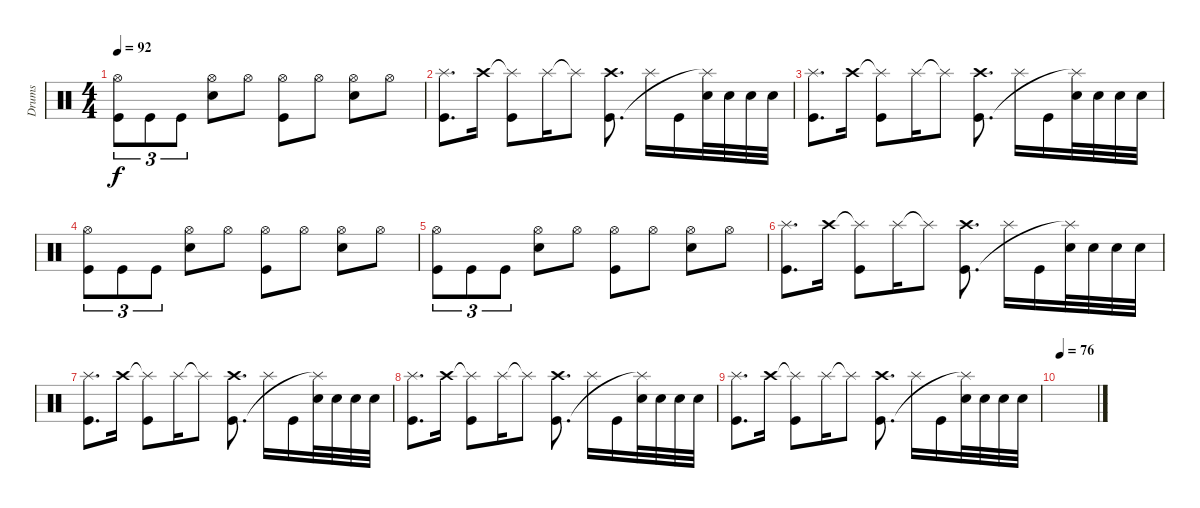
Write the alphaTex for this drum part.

\track ("Drums" "Drums") {instrument percussion}
\staff {score}
\articulation defaults
\ts (4 4)
\tempo 92
\clef neutral
\ks c
("Hi-Hat (open)" "Kick (hit)").8{tu (3 2) dy f} "Kick (hit)".8{tu (3 2)} "Kick (hit)".8{tu (3 2)} ("Hi-Hat (open)" "Electric Snare (hit)").8 "Hi-Hat (open)".8 ("Hi-Hat (open)" "Kick (hit)").8 "Hi-Hat (open)".8 ("Hi-Hat (open)" "Electric Snare (hit)").8 "Hi-Hat (open)".8 |
("Splash (hit)" "Kick (hit)").8{d} "Crash high (hit)".16 ("Splash (hit)"{t} "Kick (hit)").8 "Splash (hit)".16 "Splash (hit)"{t}.8 ("Crash high (hit)" "Kick (hit)").8{d} "Splash (hit)".16 "Kick (hit)".16 ("Electric Snare (hit)" "Splash (hit)"{t}).32 "Electric Snare (hit)".32 "Electric Snare (hit)".32 "Electric Snare (hit)".32 |
("Splash (hit)" "Kick (hit)").8{d} "Crash high (hit)".16 ("Splash (hit)"{t} "Kick (hit)").8 "Splash (hit)".16 "Splash (hit)"{t}.8 ("Crash high (hit)" "Kick (hit)").8{d} "Splash (hit)".16 "Kick (hit)".16 ("Electric Snare (hit)" "Splash (hit)"{t}).32 "Electric Snare (hit)".32 "Electric Snare (hit)".32 "Electric Snare (hit)".32 |
("Hi-Hat (open)" "Kick (hit)").8{tu (3 2)} "Kick (hit)".8{tu (3 2)} "Kick (hit)".8{tu (3 2)} ("Hi-Hat (open)" "Electric Snare (hit)").8 "Hi-Hat (open)".8 ("Hi-Hat (open)" "Kick (hit)").8 "Hi-Hat (open)".8 ("Hi-Hat (open)" "Electric Snare (hit)").8 "Hi-Hat (open)".8 |
("Hi-Hat (open)" "Kick (hit)").8{tu (3 2)} "Kick (hit)".8{tu (3 2)} "Kick (hit)".8{tu (3 2)} ("Hi-Hat (open)" "Electric Snare (hit)").8 "Hi-Hat (open)".8 ("Hi-Hat (open)" "Kick (hit)").8 "Hi-Hat (open)".8 ("Hi-Hat (open)" "Electric Snare (hit)").8 "Hi-Hat (open)".8 |
("Splash (hit)" "Kick (hit)").8{d} "Crash high (hit)".16 ("Splash (hit)"{t} "Kick (hit)").8 "Splash (hit)".16 "Splash (hit)"{t}.8 ("Crash high (hit)" "Kick (hit)").8{d} "Splash (hit)".16 "Kick (hit)".16 ("Electric Snare (hit)" "Splash (hit)"{t}).32 "Electric Snare (hit)".32 "Electric Snare (hit)".32 "Electric Snare (hit)".32 |
("Splash (hit)" "Kick (hit)").8{d} "Crash high (hit)".16 ("Splash (hit)"{t} "Kick (hit)").8 "Splash (hit)".16 "Splash (hit)"{t}.8 ("Crash high (hit)" "Kick (hit)").8{d} "Splash (hit)".16 "Kick (hit)".16 ("Electric Snare (hit)" "Splash (hit)"{t}).32 "Electric Snare (hit)".32 "Electric Snare (hit)".32 "Electric Snare (hit)".32 |
("Splash (hit)" "Kick (hit)").8{d} "Crash high (hit)".16 ("Splash (hit)"{t} "Kick (hit)").8 "Splash (hit)".16 "Splash (hit)"{t}.8 ("Crash high (hit)" "Kick (hit)").8{d} "Splash (hit)".16 "Kick (hit)".16 ("Electric Snare (hit)" "Splash (hit)"{t}).32 "Electric Snare (hit)".32 "Electric Snare (hit)".32 "Electric Snare (hit)".32 |
("Splash (hit)" "Kick (hit)").8{d} "Crash high (hit)".16 ("Splash (hit)"{t} "Kick (hit)").8 "Splash (hit)".16 "Splash (hit)"{t}.8 ("Crash high (hit)" "Kick (hit)").8{d} "Splash (hit)".16 "Kick (hit)".16 ("Electric Snare (hit)" "Splash (hit)"{t}).32 "Electric Snare (hit)".32 "Electric Snare (hit)".32 "Electric Snare (hit)".32 |
\tempo 76
